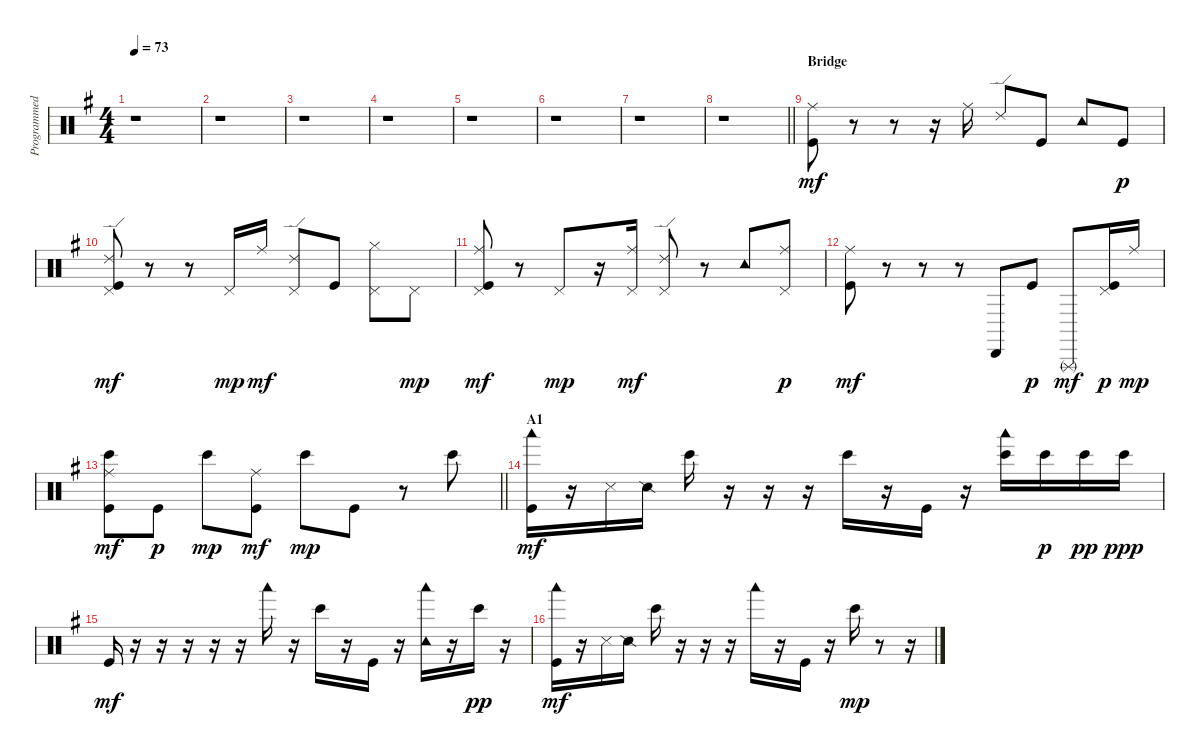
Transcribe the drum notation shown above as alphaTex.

\track ("Programmed Drums" "Programmed") {instrument percussion}
\staff {score}
\articulation defaults
\ts (4 4)
\tempo 73
\clef neutral
\ks g
r.1{dy mf} |
r.1 |
r.1 |
r.1 |
r.1 |
r.1 |
r.1 |
\barLineRight lightlight
r.1 |
\section ("" "Bridge")
("Ride (middle)" "Kick (hit)").8 r.8 r.8 r.16 "Ride (middle)".16 "Ride (edge) 2".8 "Kick (hit)".8 "Tambourine (hit)".8 "Kick (hit)".8{dy p} |
("Pedal Hi-Hat (hit)" "Ride (edge) 2" "Kick (hit)").8{dy mf} r.8 r.8 "Pedal Hi-Hat (hit)".16{dy mp} "Ride (middle)".16{dy mf} ("Pedal Hi-Hat (hit)" "Ride (edge) 2").8 "Kick (hit)".8 ("Pedal Hi-Hat (hit)" "Hi-Hat (closed)").8 "Pedal Hi-Hat (hit)".8{dy mp} |
("Pedal Hi-Hat (hit)" "Ride (middle)" "Kick (hit)").8{dy mf} r.8 "Pedal Hi-Hat (hit)".8{dy mp} r.16 ("Pedal Hi-Hat (hit)" "Ride (middle)").16{dy mf} ("Pedal Hi-Hat (hit)" "Ride (edge) 2").8 r.8 "Tambourine (hit)".8 ("Pedal Hi-Hat (hit)" "Ride (middle)").8{dy p} |
("Ride (middle)" "Kick (hit)").8{dy mf} r.8 r.8 r.8 "Cabasa (hit)".8 "Kick (hit)".8{dy p} "Triangle (rnute)".8{dy mf} ("Pedal Hi-Hat (hit)" "Kick (hit)").16{dy p} "Ride (middle)".16{dy mp} |
\barLineRight lightlight
("Ride (middle)" "Bongo High (hit)" "Kick (hit)").8{dy mf} "Kick (hit)".8{dy p} "Bongo High (hit)".8{dy mp} ("Ride (middle)" "Kick (hit)").8{dy mf} "Bongo High (hit)".8{dy mp} "Kick (hit)".8 r.8 "Bongo High (hit)".8 |
\section ("" "A1")
("Woodblock low (hit)" "Kick (hit)").16{dy mf} r.16 "Metronome (hit)".16 "Snare (side stick) 2".16 "Bongo High (hit)".16 r.16 r.16 r.16 "Bongo High (hit)".16 r.16 "Kick (hit)".16 r.16 ("Bongo High (hit)" "Woodblock low (hit)").16 "Bongo High (hit)".16{dy p} "Bongo High (hit)".16{dy pp} "Bongo High (hit)".16{dy ppp} |
"Kick (hit)".16{dy mf} r.16 r.16 r.16 r.16 r.16 "Woodblock low (hit)".16 r.16 "Bongo High (hit)".16 r.16 "Kick (hit)".16 r.16 ("Tambourine (hit)" "Woodblock low (hit)").16 r.16 "Bongo High (hit)".16{dy pp} r.16 |
("Woodblock low (hit)" "Kick (hit)").16{dy mf} r.16 "Metronome (hit)".16 "Snare (side stick) 2".16 "Bongo High (hit)".16 r.16 r.16 r.16 "Woodblock low (hit)".16 r.16 "Kick (hit)".16 r.16 "Bongo High (hit)".16{dy mp} r.8 r.16
